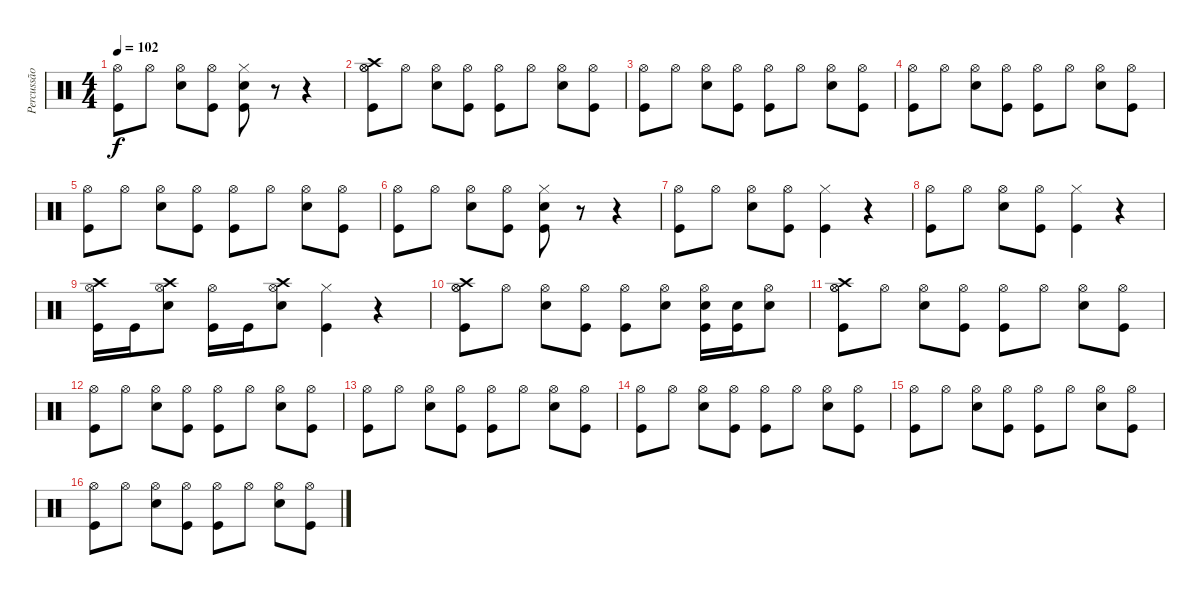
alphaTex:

\track ("Percussão" "Percussão") {instrument percussion}
\staff {score}
\articulation defaults
\ts (4 4)
\tempo 102
\clef neutral
\ks c
("Hi-Hat (open)" "Kick (hit)").8{dy f} "Hi-Hat (open)".8 ("Snare (hit) 2" "Hi-Hat (open)").8 ("Hi-Hat (open)" "Kick (hit)").8 ("Kick (hit)" "Snare (hit) 2" "Hi-Hat (closed)").8 r.8 r.4 |
("Hi-Hat (open)" "Crash high (hit)" "Hi-Hat (open)" "Kick (hit)").8 "Hi-Hat (open)".8 ("Snare (hit) 2" "Hi-Hat (open)").8 ("Hi-Hat (open)" "Kick (hit)").8 ("Hi-Hat (open)" "Kick (hit)").8 "Hi-Hat (open)".8 ("Hi-Hat (open)" "Snare (hit) 2").8 ("Hi-Hat (open)" "Kick (hit)").8 |
("Hi-Hat (open)" "Kick (hit)").8 "Hi-Hat (open)".8 ("Snare (hit) 2" "Hi-Hat (open)").8 ("Hi-Hat (open)" "Kick (hit)").8 ("Hi-Hat (open)" "Kick (hit)").8 "Hi-Hat (open)".8 ("Hi-Hat (open)" "Snare (hit) 2").8 ("Hi-Hat (open)" "Kick (hit)").8 |
("Hi-Hat (open)" "Kick (hit)").8 "Hi-Hat (open)".8 ("Snare (hit) 2" "Hi-Hat (open)").8 ("Hi-Hat (open)" "Kick (hit)").8 ("Hi-Hat (open)" "Kick (hit)").8 "Hi-Hat (open)".8 ("Hi-Hat (open)" "Snare (hit) 2").8 ("Hi-Hat (open)" "Kick (hit)").8 |
("Hi-Hat (open)" "Kick (hit)").8 "Hi-Hat (open)".8 ("Snare (hit) 2" "Hi-Hat (open)").8 ("Hi-Hat (open)" "Kick (hit)").8 ("Hi-Hat (open)" "Kick (hit)").8 "Hi-Hat (open)".8 ("Hi-Hat (open)" "Snare (hit) 2").8 ("Hi-Hat (open)" "Kick (hit)").8 |
("Hi-Hat (open)" "Kick (hit)").8 "Hi-Hat (open)".8 ("Snare (hit) 2" "Hi-Hat (open)").8 ("Hi-Hat (open)" "Kick (hit)").8 ("Kick (hit)" "Snare (hit) 2" "Hi-Hat (closed)").8 r.8 r.4 |
("Hi-Hat (open)" "Kick (hit)").8 "Hi-Hat (open)".8 ("Snare (hit) 2" "Hi-Hat (open)").8 ("Hi-Hat (open)" "Kick (hit)").8 ("Kick (hit)" "Hi-Hat (closed)").4 r.4 |
("Hi-Hat (open)" "Kick (hit)").8 "Hi-Hat (open)".8 ("Snare (hit) 2" "Hi-Hat (open)").8 ("Hi-Hat (open)" "Kick (hit)").8 ("Kick (hit)" "Hi-Hat (closed)").4 r.4 |
("Kick (hit)" "Hi-Hat (open)" "Crash high (hit)").16 "Kick (hit)".16 ("Snare (hit) 2" "Hi-Hat (open)" "Crash high (hit)").8 ("Kick (hit)" "Hi-Hat (open)").16 "Kick (hit)".16 ("Snare (hit) 2" "Hi-Hat (open)" "Crash high (hit)").8 ("Kick (hit)" "Hi-Hat (closed)").4 r.4 |
("Hi-Hat (open)" "Crash high (hit)" "Hi-Hat (open)" "Kick (hit)").8 "Hi-Hat (open)".8 ("Snare (hit) 2" "Hi-Hat (open)").8 ("Hi-Hat (open)" "Kick (hit)").8 ("Hi-Hat (open)" "Kick (hit)").8 ("Hi-Hat (open)" "Snare (hit) 2").8 ("Hi-Hat (open)" "Kick (hit)" "Snare (hit) 2").16 ("Kick (hit)" "Snare (hit) 2").16 ("Snare (hit) 2" "Hi-Hat (open)").8 |
("Hi-Hat (open)" "Crash high (hit)" "Hi-Hat (open)" "Kick (hit)").8 "Hi-Hat (open)".8 ("Snare (hit) 2" "Hi-Hat (open)").8 ("Hi-Hat (open)" "Kick (hit)").8 ("Hi-Hat (open)" "Kick (hit)").8 "Hi-Hat (open)".8 ("Hi-Hat (open)" "Snare (hit) 2").8 ("Hi-Hat (open)" "Kick (hit)").8 |
("Hi-Hat (open)" "Kick (hit)").8 "Hi-Hat (open)".8 ("Snare (hit) 2" "Hi-Hat (open)").8 ("Hi-Hat (open)" "Kick (hit)").8 ("Hi-Hat (open)" "Kick (hit)").8 "Hi-Hat (open)".8 ("Hi-Hat (open)" "Snare (hit) 2").8 ("Hi-Hat (open)" "Kick (hit)").8 |
("Hi-Hat (open)" "Kick (hit)").8 "Hi-Hat (open)".8 ("Snare (hit) 2" "Hi-Hat (open)").8 ("Hi-Hat (open)" "Kick (hit)").8 ("Hi-Hat (open)" "Kick (hit)").8 "Hi-Hat (open)".8 ("Hi-Hat (open)" "Snare (hit) 2").8 ("Hi-Hat (open)" "Kick (hit)").8 |
("Hi-Hat (open)" "Kick (hit)").8 "Hi-Hat (open)".8 ("Snare (hit) 2" "Hi-Hat (open)").8 ("Hi-Hat (open)" "Kick (hit)").8 ("Hi-Hat (open)" "Kick (hit)").8 "Hi-Hat (open)".8 ("Hi-Hat (open)" "Snare (hit) 2").8 ("Hi-Hat (open)" "Kick (hit)").8 |
("Hi-Hat (open)" "Kick (hit)").8 "Hi-Hat (open)".8 ("Snare (hit) 2" "Hi-Hat (open)").8 ("Hi-Hat (open)" "Kick (hit)").8 ("Hi-Hat (open)" "Kick (hit)").8 "Hi-Hat (open)".8 ("Hi-Hat (open)" "Snare (hit) 2").8 ("Hi-Hat (open)" "Kick (hit)").8 |
("Hi-Hat (open)" "Kick (hit)").8 "Hi-Hat (open)".8 ("Snare (hit) 2" "Hi-Hat (open)").8 ("Hi-Hat (open)" "Kick (hit)").8 ("Hi-Hat (open)" "Kick (hit)").8 "Hi-Hat (open)".8 ("Hi-Hat (open)" "Snare (hit) 2").8 ("Hi-Hat (open)" "Kick (hit)").8
